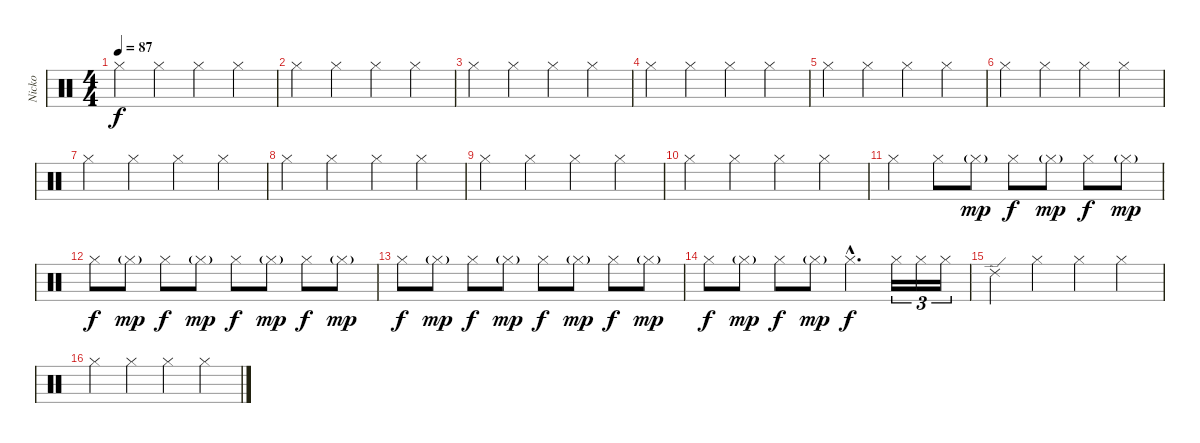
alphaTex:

\track ("Nicko " "Nicko ") {instrument percussion}
\staff {score}
\articulation defaults
\ts (4 4)
\tempo 87
\clef neutral
\ks c "Hi-Hat (closed)".4{dy f} "Hi-Hat (closed)".4 "Hi-Hat (closed)".4 "Hi-Hat (closed)".4
|
"Hi-Hat (closed)".4 "Hi-Hat (closed)".4 "Hi-Hat (closed)".4 "Hi-Hat (closed)".4 |
"Hi-Hat (closed)".4 "Hi-Hat (closed)".4 "Hi-Hat (closed)".4 "Hi-Hat (closed)".4 |
"Hi-Hat (closed)".4 "Hi-Hat (closed)".4 "Hi-Hat (closed)".4 "Hi-Hat (closed)".4 |
"Hi-Hat (closed)".4 "Hi-Hat (closed)".4 "Hi-Hat (closed)".4 "Hi-Hat (closed)".4 |
"Hi-Hat (closed)".4 "Hi-Hat (closed)".4 "Hi-Hat (closed)".4 "Hi-Hat (closed)".4 |
"Hi-Hat (closed)".4 "Hi-Hat (closed)".4 "Hi-Hat (closed)".4 "Hi-Hat (closed)".4 |
"Hi-Hat (closed)".4 "Hi-Hat (closed)".4 "Hi-Hat (closed)".4 "Hi-Hat (closed)".4 |
"Hi-Hat (closed)".4 "Hi-Hat (closed)".4 "Hi-Hat (closed)".4 "Hi-Hat (closed)".4 |
"Hi-Hat (closed)".4 "Hi-Hat (closed)".4 "Hi-Hat (closed)".4 "Hi-Hat (closed)".4 |
"Hi-Hat (closed)".4 "Hi-Hat (closed)".8 "Hi-Hat (closed)"{g}.8{dy mp} "Hi-Hat (closed)".8{dy f} "Hi-Hat (closed)"{g}.8{dy mp} "Hi-Hat (closed)".8{dy f} "Hi-Hat (closed)"{g}.8{dy mp} |
"Hi-Hat (closed)".8{dy f} "Hi-Hat (closed)"{g}.8{dy mp} "Hi-Hat (closed)".8{dy f} "Hi-Hat (closed)"{g}.8{dy mp} "Hi-Hat (closed)".8{dy f} "Hi-Hat (closed)"{g}.8{dy mp} "Hi-Hat (closed)".8{dy f} "Hi-Hat (closed)"{g}.8{dy mp} |
"Hi-Hat (closed)".8{dy f} "Hi-Hat (closed)"{g}.8{dy mp} "Hi-Hat (closed)".8{dy f} "Hi-Hat (closed)"{g}.8{dy mp} "Hi-Hat (closed)".8{dy f} "Hi-Hat (closed)"{g}.8{dy mp} "Hi-Hat (closed)".8{dy f} "Hi-Hat (closed)"{g}.8{dy mp} |
"Hi-Hat (closed)".8{dy f} "Hi-Hat (closed)"{g}.8{dy mp} "Hi-Hat (closed)".8{dy f} "Hi-Hat (closed)"{g}.8{dy mp} "Hi-Hat (closed)"{hac}.4{d dy f} "Hi-Hat (closed)".16{tu (3 2)} "Hi-Hat (closed)".16{tu (3 2)} "Hi-Hat (closed)".16{tu (3 2)} |
"Ride (edge) 2".4 "Hi-Hat (closed)".4 "Hi-Hat (closed)".4 "Hi-Hat (closed)".4 |
"Hi-Hat (closed)".4 "Hi-Hat (closed)".4 "Hi-Hat (closed)".4 "Hi-Hat (closed)".4
